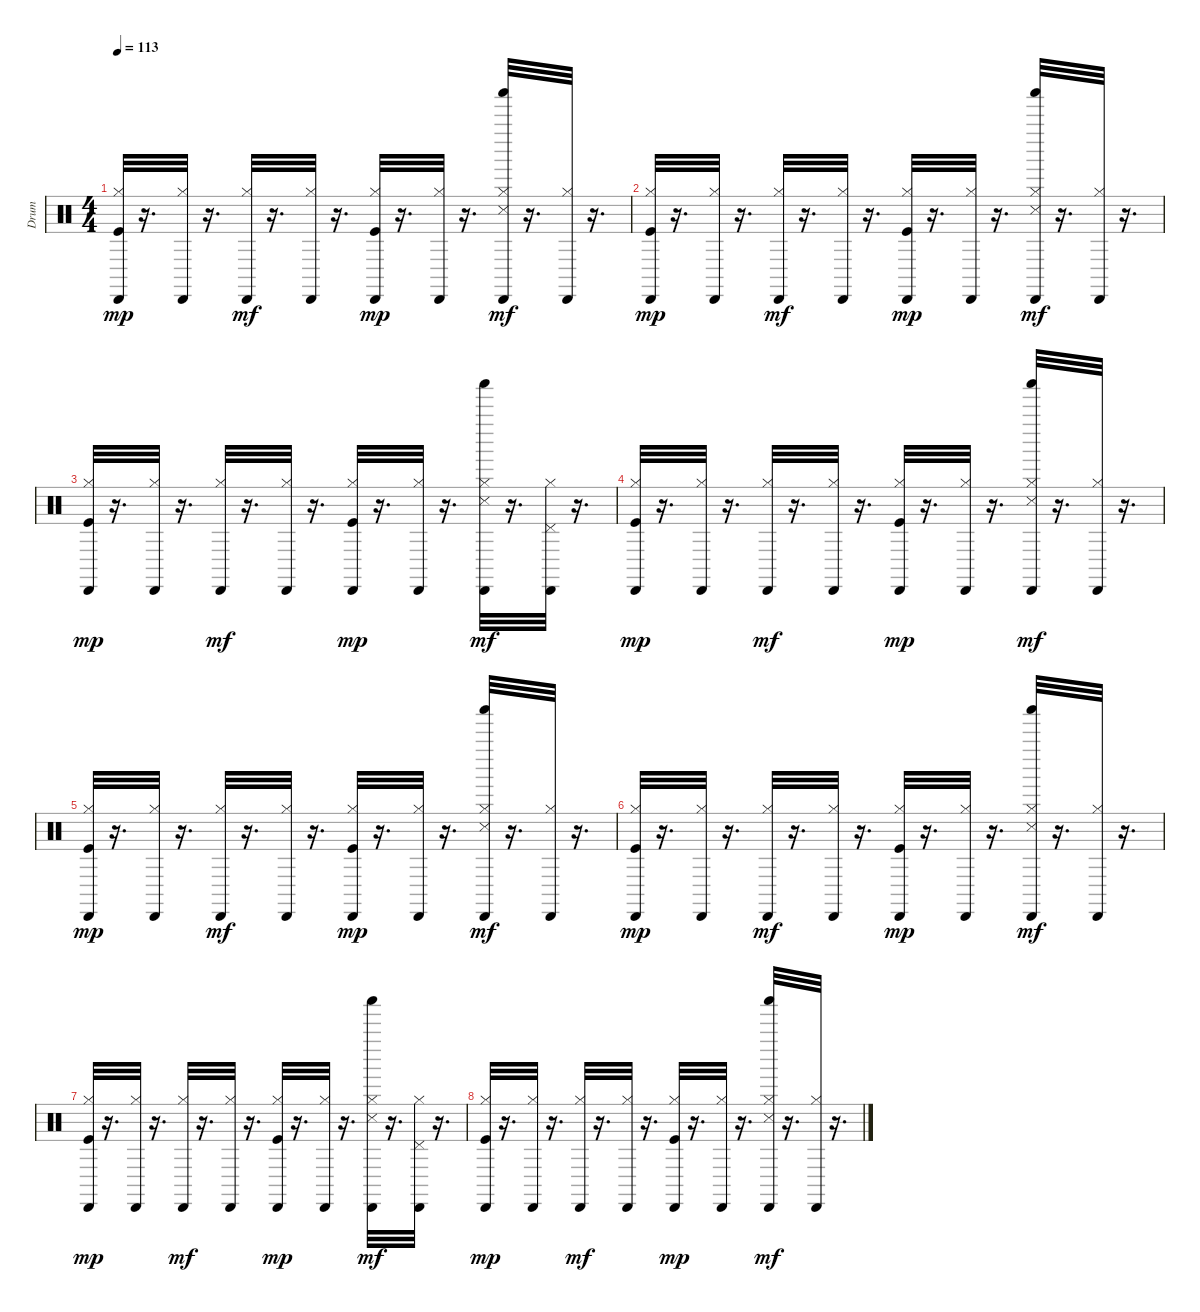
\track ("Drum" "Drum") {instrument percussion}
\staff {score}
\articulation defaults
\ts (4 4)
\tempo 113
\clef neutral
\ks c
("Hi-Hat (closed)" "Kick (hit)" "Cabasa (hit)").32{dy mp} r.16{d} ("Hi-Hat (closed)" "Cabasa (hit)").32 r.16{d} ("Hi-Hat (closed)" "Cabasa (hit)").32{dy mf} r.16{d} ("Hi-Hat (closed)" "Cabasa (hit)").32 r.16{d} ("Hi-Hat (closed)" "Kick (hit)" "Cabasa (hit)").32{dy mp} r.16{d} ("Hi-Hat (closed)" "Cabasa (hit)").32 r.16{d} ("Hi-Hat (closed)" "Shaker (hit)" "Snare (side stick) 3" "Cabasa (hit)").32{dy mf} r.16{d} ("Hi-Hat (closed)" "Cabasa (hit)").32 r.16{d} |
("Hi-Hat (closed)" "Kick (hit)" "Cabasa (hit)").32{dy mp} r.16{d} ("Hi-Hat (closed)" "Cabasa (hit)").32 r.16{d} ("Hi-Hat (closed)" "Cabasa (hit)").32{dy mf} r.16{d} ("Hi-Hat (closed)" "Cabasa (hit)").32 r.16{d} ("Hi-Hat (closed)" "Kick (hit)" "Cabasa (hit)").32{dy mp} r.16{d} ("Hi-Hat (closed)" "Cabasa (hit)").32 r.16{d} ("Hi-Hat (closed)" "Shaker (hit)" "Snare (side stick) 3" "Cabasa (hit)").32{dy mf} r.16{d} ("Hi-Hat (closed)" "Cabasa (hit)").32 r.16{d} |
("Hi-Hat (closed)" "Kick (hit)" "Cabasa (hit)").32{dy mp} r.16{d} ("Hi-Hat (closed)" "Cabasa (hit)").32 r.16{d} ("Hi-Hat (closed)" "Cabasa (hit)").32{dy mf} r.16{d} ("Hi-Hat (closed)" "Cabasa (hit)").32 r.16{d} ("Hi-Hat (closed)" "Kick (hit)" "Cabasa (hit)").32{dy mp} r.16{d} ("Hi-Hat (closed)" "Cabasa (hit)").32 r.16{d} ("Hi-Hat (closed)" "Shaker (hit)" "Snare (side stick) 3" "Cabasa (hit)").32{dy mf} r.16{d} ("Hi-Hat (closed)" "Pedal Hi-Hat (hit)" "Cabasa (hit)").32 r.16{d} |
("Hi-Hat (closed)" "Kick (hit)" "Cabasa (hit)").32{dy mp} r.16{d} ("Hi-Hat (closed)" "Cabasa (hit)").32 r.16{d} ("Hi-Hat (closed)" "Cabasa (hit)").32{dy mf} r.16{d} ("Hi-Hat (closed)" "Cabasa (hit)").32 r.16{d} ("Hi-Hat (closed)" "Kick (hit)" "Cabasa (hit)").32{dy mp} r.16{d} ("Hi-Hat (closed)" "Cabasa (hit)").32 r.16{d} ("Hi-Hat (closed)" "Shaker (hit)" "Snare (side stick) 3" "Cabasa (hit)").32{dy mf} r.16{d} ("Hi-Hat (closed)" "Cabasa (hit)").32 r.16{d} |
("Hi-Hat (closed)" "Kick (hit)" "Cabasa (hit)").32{dy mp} r.16{d} ("Hi-Hat (closed)" "Cabasa (hit)").32 r.16{d} ("Hi-Hat (closed)" "Cabasa (hit)").32{dy mf} r.16{d} ("Hi-Hat (closed)" "Cabasa (hit)").32 r.16{d} ("Hi-Hat (closed)" "Kick (hit)" "Cabasa (hit)").32{dy mp} r.16{d} ("Hi-Hat (closed)" "Cabasa (hit)").32 r.16{d} ("Hi-Hat (closed)" "Shaker (hit)" "Snare (side stick) 3" "Cabasa (hit)").32{dy mf} r.16{d} ("Hi-Hat (closed)" "Cabasa (hit)").32 r.16{d} |
("Hi-Hat (closed)" "Kick (hit)" "Cabasa (hit)").32{dy mp} r.16{d} ("Hi-Hat (closed)" "Cabasa (hit)").32 r.16{d} ("Hi-Hat (closed)" "Cabasa (hit)").32{dy mf} r.16{d} ("Hi-Hat (closed)" "Cabasa (hit)").32 r.16{d} ("Hi-Hat (closed)" "Kick (hit)" "Cabasa (hit)").32{dy mp} r.16{d} ("Hi-Hat (closed)" "Cabasa (hit)").32 r.16{d} ("Hi-Hat (closed)" "Shaker (hit)" "Snare (side stick) 3" "Cabasa (hit)").32{dy mf} r.16{d} ("Hi-Hat (closed)" "Cabasa (hit)").32 r.16{d} |
("Hi-Hat (closed)" "Kick (hit)" "Cabasa (hit)").32{dy mp} r.16{d} ("Hi-Hat (closed)" "Cabasa (hit)").32 r.16{d} ("Hi-Hat (closed)" "Cabasa (hit)").32{dy mf} r.16{d} ("Hi-Hat (closed)" "Cabasa (hit)").32 r.16{d} ("Hi-Hat (closed)" "Kick (hit)" "Cabasa (hit)").32{dy mp} r.16{d} ("Hi-Hat (closed)" "Cabasa (hit)").32 r.16{d} ("Hi-Hat (closed)" "Shaker (hit)" "Snare (side stick) 3" "Cabasa (hit)").32{dy mf} r.16{d} ("Hi-Hat (closed)" "Pedal Hi-Hat (hit)" "Cabasa (hit)").32 r.16{d} |
("Hi-Hat (closed)" "Kick (hit)" "Cabasa (hit)").32{dy mp} r.16{d} ("Hi-Hat (closed)" "Cabasa (hit)").32 r.16{d} ("Hi-Hat (closed)" "Cabasa (hit)").32{dy mf} r.16{d} ("Hi-Hat (closed)" "Cabasa (hit)").32 r.16{d} ("Hi-Hat (closed)" "Kick (hit)" "Cabasa (hit)").32{dy mp} r.16{d} ("Hi-Hat (closed)" "Cabasa (hit)").32 r.16{d} ("Hi-Hat (closed)" "Shaker (hit)" "Snare (side stick) 3" "Cabasa (hit)").32{dy mf} r.16{d} ("Hi-Hat (closed)" "Cabasa (hit)").32 r.16{d}
